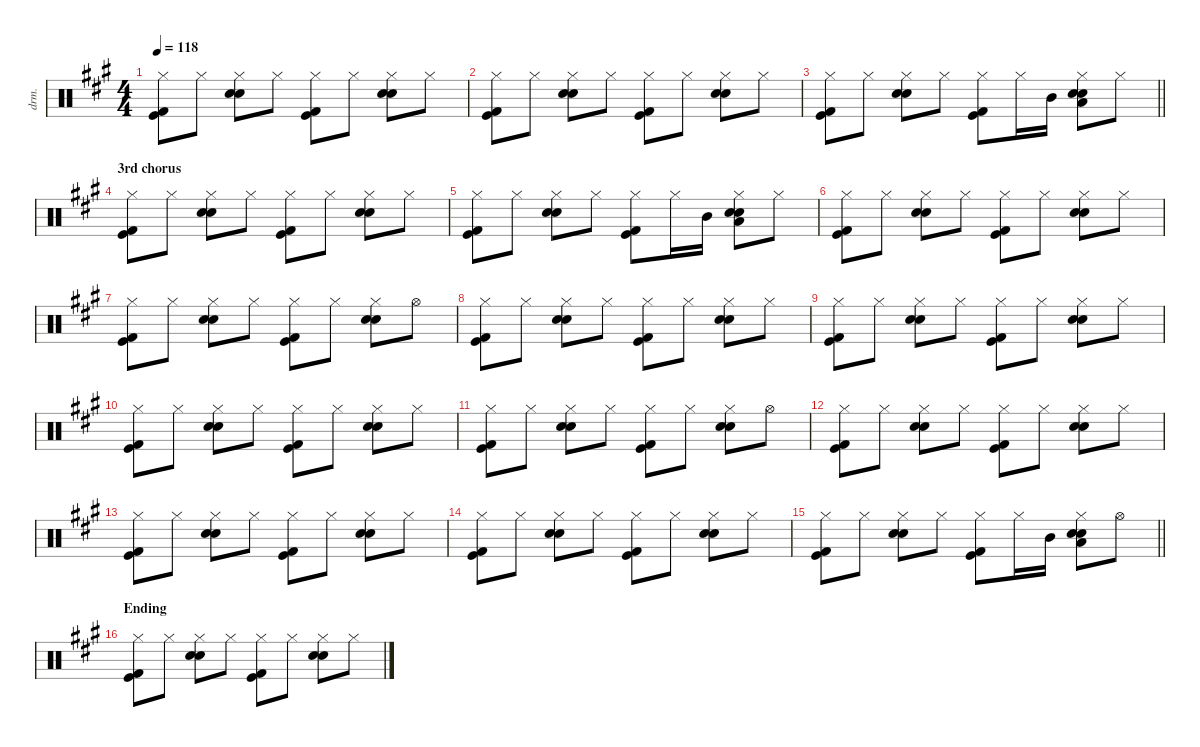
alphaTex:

\defaultSystemsLayout 4
\hideDynamics
\bracketExtendMode nobrackets
\otherSystemsTrackNameOrientation horizontal
\track ("drums" "drm.") {instrument percussion}
\staff {score}
\articulation defaults
\ts (4 4)
\tempo 118
\clef neutral
\ks f#minor
("Hi-Hat (closed)"{acc forcenatural} "Kick (hit)"{acc forcenatural} "Kick (hit) 2"{acc forcenatural}).8{dy f} "Hi-Hat (closed)"{acc forcenatural}.8{dy mf} ("Hi-Hat (closed)"{acc forcenatural} "Hand Clap (hit)"{acc forcenatural} "Snare (hit) 2"{acc forcenatural}).8{dy f} "Hi-Hat (closed)"{acc forcenatural}.8{dy mf} ("Hi-Hat (closed)"{acc forcenatural} "Kick (hit)"{acc forcenatural} "Kick (hit) 2"{acc forcenatural}).8{dy f} "Hi-Hat (closed)"{acc forcenatural}.8{dy mf} ("Hi-Hat (closed)"{acc forcenatural} "Hand Clap (hit)"{acc forcenatural} "Snare (hit) 2"{acc forcenatural}).8{dy f} "Hi-Hat (closed)"{acc forcenatural}.8{dy mf} |
("Hi-Hat (closed)"{acc forcenatural} "Kick (hit)"{acc forcenatural} "Kick (hit) 2"{acc forcenatural}).8{dy f} "Hi-Hat (closed)"{acc forcenatural}.8{dy mf} ("Hi-Hat (closed)"{acc forcenatural} "Hand Clap (hit)"{acc forcenatural} "Snare (hit) 2"{acc forcenatural}).8{dy f} "Hi-Hat (closed)"{acc forcenatural}.8{dy mf} ("Hi-Hat (closed)"{acc forcenatural} "Kick (hit)"{acc forcenatural} "Kick (hit) 2"{acc forcenatural}).8{dy f} "Hi-Hat (closed)"{acc forcenatural}.8{dy mf} ("Hi-Hat (closed)"{acc forcenatural} "Hand Clap (hit)"{acc forcenatural} "Snare (hit) 2"{acc forcenatural}).8{dy f} "Hi-Hat (closed)"{acc forcenatural}.8{dy mf} |
\barLineRight lightlight
("Hi-Hat (closed)"{acc forcenatural} "Kick (hit)"{acc forcenatural} "Kick (hit) 2"{acc forcenatural}).8{dy f} "Hi-Hat (closed)"{acc forcenatural}.8{dy mf} ("Hi-Hat (closed)"{acc forcenatural} "Hand Clap (hit)"{acc forcenatural} "Snare (hit) 2"{acc forcenatural}).8{dy f} "Hi-Hat (closed)"{acc forcenatural}.8{dy mf} ("Hi-Hat (closed)"{acc forcenatural} "Kick (hit)"{acc forcenatural} "Kick (hit) 2"{acc forcenatural}).8{dy f} "Hi-Hat (closed)"{acc forcenatural}.16{dy mf} "Mid Tom (hit)"{acc forcenatural}.16 ("Hi-Hat (closed)"{acc forcenatural} "Hand Clap (hit)"{acc forcenatural} "Snare (hit) 2"{acc forcenatural} "Low Tom (hit)"{acc forcenatural}).8{dy f} "Hi-Hat (closed)"{acc forcenatural}.8{dy mf} |
\section ("" "3rd chorus")
("Hi-Hat (closed)"{acc forcenatural} "Kick (hit)"{acc forcenatural} "Kick (hit) 2"{acc forcenatural}).8{dy f} "Hi-Hat (closed)"{acc forcenatural}.8{dy mf} ("Hi-Hat (closed)"{acc forcenatural} "Hand Clap (hit)"{acc forcenatural} "Snare (hit) 2"{acc forcenatural}).8{dy f} "Hi-Hat (closed)"{acc forcenatural}.8{dy mf} ("Hi-Hat (closed)"{acc forcenatural} "Kick (hit)"{acc forcenatural} "Kick (hit) 2"{acc forcenatural}).8{dy f} "Hi-Hat (closed)"{acc forcenatural}.8{dy mf} ("Hi-Hat (closed)"{acc forcenatural} "Hand Clap (hit)"{acc forcenatural} "Snare (hit) 2"{acc forcenatural}).8{dy f} "Hi-Hat (closed)"{acc forcenatural}.8{dy mf} |
("Hi-Hat (closed)"{acc forcenatural} "Kick (hit)"{acc forcenatural} "Kick (hit) 2"{acc forcenatural}).8{dy f} "Hi-Hat (closed)"{acc forcenatural}.8{dy mf} ("Hi-Hat (closed)"{acc forcenatural} "Hand Clap (hit)"{acc forcenatural} "Snare (hit) 2"{acc forcenatural}).8{dy f} "Hi-Hat (closed)"{acc forcenatural}.8{dy mf} ("Hi-Hat (closed)"{acc forcenatural} "Kick (hit)"{acc forcenatural} "Kick (hit) 2"{acc forcenatural}).8{dy f} "Hi-Hat (closed)"{acc forcenatural}.16{dy mf} "Mid Tom (hit)"{acc forcenatural}.16 ("Hi-Hat (closed)"{acc forcenatural} "Hand Clap (hit)"{acc forcenatural} "Snare (hit) 2"{acc forcenatural} "Low Tom (hit)"{acc forcenatural}).8{dy f} "Hi-Hat (closed)"{acc forcenatural}.8{dy mf} |
("Hi-Hat (closed)"{acc forcenatural} "Kick (hit)"{acc forcenatural} "Kick (hit) 2"{acc forcenatural}).8{dy f} "Hi-Hat (closed)"{acc forcenatural}.8{dy mf} ("Hi-Hat (closed)"{acc forcenatural} "Hand Clap (hit)"{acc forcenatural} "Snare (hit) 2"{acc forcenatural}).8{dy f} "Hi-Hat (closed)"{acc forcenatural}.8{dy mf} ("Hi-Hat (closed)"{acc forcenatural} "Kick (hit)"{acc forcenatural} "Kick (hit) 2"{acc forcenatural}).8{dy f} "Hi-Hat (closed)"{acc forcenatural}.8{dy mf} ("Hi-Hat (closed)"{acc forcenatural} "Hand Clap (hit)"{acc forcenatural} "Snare (hit) 2"{acc forcenatural}).8{dy f} "Hi-Hat (closed)"{acc forcenatural}.8{dy mf} |
("Hi-Hat (closed)"{acc forcenatural} "Kick (hit)"{acc forcenatural} "Kick (hit) 2"{acc forcenatural}).8{dy f} "Hi-Hat (closed)"{acc forcenatural}.8{dy mf} ("Hi-Hat (closed)"{acc forcenatural} "Hand Clap (hit)"{acc forcenatural} "Snare (hit) 2"{acc forcenatural}).8{dy f} "Hi-Hat (closed)"{acc forcenatural}.8{dy mf} ("Hi-Hat (closed)"{acc forcenatural} "Kick (hit)"{acc forcenatural} "Kick (hit) 2"{acc forcenatural}).8{dy f} "Hi-Hat (closed)"{acc forcenatural}.8{dy mf} ("Hi-Hat (closed)"{acc forcenatural} "Hand Clap (hit)"{acc forcenatural} "Snare (hit) 2"{acc forcenatural}).8{dy f} "Hi-Hat (open)"{acc forcenatural}.8 |
("Hi-Hat (closed)"{acc forcenatural} "Kick (hit)"{acc forcenatural} "Kick (hit) 2"{acc forcenatural}).8 "Hi-Hat (closed)"{acc forcenatural}.8{dy mf} ("Hi-Hat (closed)"{acc forcenatural} "Hand Clap (hit)"{acc forcenatural} "Snare (hit) 2"{acc forcenatural}).8{dy f} "Hi-Hat (closed)"{acc forcenatural}.8{dy mf} ("Hi-Hat (closed)"{acc forcenatural} "Kick (hit)"{acc forcenatural} "Kick (hit) 2"{acc forcenatural}).8{dy f} "Hi-Hat (closed)"{acc forcenatural}.8{dy mf} ("Hi-Hat (closed)"{acc forcenatural} "Hand Clap (hit)"{acc forcenatural} "Snare (hit) 2"{acc forcenatural}).8{dy f} "Hi-Hat (closed)"{acc forcenatural}.8{dy mf} |
("Hi-Hat (closed)"{acc forcenatural} "Kick (hit)"{acc forcenatural} "Kick (hit) 2"{acc forcenatural}).8{dy f} "Hi-Hat (closed)"{acc forcenatural}.8{dy mf} ("Hi-Hat (closed)"{acc forcenatural} "Hand Clap (hit)"{acc forcenatural} "Snare (hit) 2"{acc forcenatural}).8{dy f} "Hi-Hat (closed)"{acc forcenatural}.8{dy mf} ("Hi-Hat (closed)"{acc forcenatural} "Kick (hit)"{acc forcenatural} "Kick (hit) 2"{acc forcenatural}).8{dy f} "Hi-Hat (closed)"{acc forcenatural}.8{dy mf} ("Hi-Hat (closed)"{acc forcenatural} "Hand Clap (hit)"{acc forcenatural} "Snare (hit) 2"{acc forcenatural}).8{dy f} "Hi-Hat (closed)"{acc forcenatural}.8{dy mf} |
("Hi-Hat (closed)"{acc forcenatural} "Kick (hit)"{acc forcenatural} "Kick (hit) 2"{acc forcenatural}).8{dy f} "Hi-Hat (closed)"{acc forcenatural}.8{dy mf} ("Hi-Hat (closed)"{acc forcenatural} "Hand Clap (hit)"{acc forcenatural} "Snare (hit) 2"{acc forcenatural}).8{dy f} "Hi-Hat (closed)"{acc forcenatural}.8{dy mf} ("Hi-Hat (closed)"{acc forcenatural} "Kick (hit)"{acc forcenatural} "Kick (hit) 2"{acc forcenatural}).8{dy f} "Hi-Hat (closed)"{acc forcenatural}.8{dy mf} ("Hi-Hat (closed)"{acc forcenatural} "Hand Clap (hit)"{acc forcenatural} "Snare (hit) 2"{acc forcenatural}).8{dy f} "Hi-Hat (closed)"{acc forcenatural}.8{dy mf} |
("Hi-Hat (closed)"{acc forcenatural} "Kick (hit)"{acc forcenatural} "Kick (hit) 2"{acc forcenatural}).8{dy f} "Hi-Hat (closed)"{acc forcenatural}.8{dy mf} ("Hi-Hat (closed)"{acc forcenatural} "Hand Clap (hit)"{acc forcenatural} "Snare (hit) 2"{acc forcenatural}).8{dy f} "Hi-Hat (closed)"{acc forcenatural}.8{dy mf} ("Hi-Hat (closed)"{acc forcenatural} "Kick (hit)"{acc forcenatural} "Kick (hit) 2"{acc forcenatural}).8{dy f} "Hi-Hat (closed)"{acc forcenatural}.8{dy mf} ("Hi-Hat (closed)"{acc forcenatural} "Hand Clap (hit)"{acc forcenatural} "Snare (hit) 2"{acc forcenatural}).8{dy f} "Hi-Hat (open)"{acc forcenatural}.8 |
("Hi-Hat (closed)"{acc forcenatural} "Kick (hit)"{acc forcenatural} "Kick (hit) 2"{acc forcenatural}).8 "Hi-Hat (closed)"{acc forcenatural}.8{dy mf} ("Hi-Hat (closed)"{acc forcenatural} "Hand Clap (hit)"{acc forcenatural} "Snare (hit) 2"{acc forcenatural}).8{dy f} "Hi-Hat (closed)"{acc forcenatural}.8{dy mf} ("Hi-Hat (closed)"{acc forcenatural} "Kick (hit)"{acc forcenatural} "Kick (hit) 2"{acc forcenatural}).8{dy f} "Hi-Hat (closed)"{acc forcenatural}.8{dy mf} ("Hi-Hat (closed)"{acc forcenatural} "Hand Clap (hit)"{acc forcenatural} "Snare (hit) 2"{acc forcenatural}).8{dy f} "Hi-Hat (closed)"{acc forcenatural}.8{dy mf} |
("Hi-Hat (closed)"{acc forcenatural} "Kick (hit)"{acc forcenatural} "Kick (hit) 2"{acc forcenatural}).8{dy f} "Hi-Hat (closed)"{acc forcenatural}.8{dy mf} ("Hi-Hat (closed)"{acc forcenatural} "Hand Clap (hit)"{acc forcenatural} "Snare (hit) 2"{acc forcenatural}).8{dy f} "Hi-Hat (closed)"{acc forcenatural}.8{dy mf} ("Hi-Hat (closed)"{acc forcenatural} "Kick (hit)"{acc forcenatural} "Kick (hit) 2"{acc forcenatural}).8{dy f} "Hi-Hat (closed)"{acc forcenatural}.8{dy mf} ("Hi-Hat (closed)"{acc forcenatural} "Hand Clap (hit)"{acc forcenatural} "Snare (hit) 2"{acc forcenatural}).8{dy f} "Hi-Hat (closed)"{acc forcenatural}.8{dy mf} |
("Hi-Hat (closed)"{acc forcenatural} "Kick (hit)"{acc forcenatural} "Kick (hit) 2"{acc forcenatural}).8{dy f} "Hi-Hat (closed)"{acc forcenatural}.8{dy mf} ("Hi-Hat (closed)"{acc forcenatural} "Hand Clap (hit)"{acc forcenatural} "Snare (hit) 2"{acc forcenatural}).8{dy f} "Hi-Hat (closed)"{acc forcenatural}.8{dy mf} ("Hi-Hat (closed)"{acc forcenatural} "Kick (hit)"{acc forcenatural} "Kick (hit) 2"{acc forcenatural}).8{dy f} "Hi-Hat (closed)"{acc forcenatural}.8{dy mf} ("Hi-Hat (closed)"{acc forcenatural} "Hand Clap (hit)"{acc forcenatural} "Snare (hit) 2"{acc forcenatural}).8{dy f} "Hi-Hat (closed)"{acc forcenatural}.8{dy mf} |
\barLineRight lightlight
("Hi-Hat (closed)"{acc forcenatural} "Kick (hit)"{acc forcenatural} "Kick (hit) 2"{acc forcenatural}).8{dy f} "Hi-Hat (closed)"{acc forcenatural}.8{dy mf} ("Hi-Hat (closed)"{acc forcenatural} "Hand Clap (hit)"{acc forcenatural} "Snare (hit) 2"{acc forcenatural}).8{dy f} "Hi-Hat (closed)"{acc forcenatural}.8{dy mf} ("Hi-Hat (closed)"{acc forcenatural} "Kick (hit)"{acc forcenatural} "Kick (hit) 2"{acc forcenatural}).8{dy f} "Hi-Hat (closed)"{acc forcenatural}.16{dy mf} "Mid Tom (hit)"{acc forcenatural}.16 ("Hi-Hat (closed)"{acc forcenatural} "Hand Clap (hit)"{acc forcenatural} "Snare (hit) 2"{acc forcenatural} "Low Tom (hit)"{acc forcenatural}).8{dy f} "Hi-Hat (open)"{acc forcenatural}.8{dy mf} |
\section ("" "Ending")
("Hi-Hat (closed)"{acc forcenatural} "Kick (hit)"{acc forcenatural} "Kick (hit) 2"{acc forcenatural}).8{dy f} "Hi-Hat (closed)"{acc forcenatural}.8{dy mf} ("Hi-Hat (closed)"{acc forcenatural} "Hand Clap (hit)"{acc forcenatural} "Snare (hit) 2"{acc forcenatural}).8{dy f} "Hi-Hat (closed)"{acc forcenatural}.8{dy mf} ("Hi-Hat (closed)"{acc forcenatural} "Kick (hit)"{acc forcenatural} "Kick (hit) 2"{acc forcenatural}).8{dy f} "Hi-Hat (closed)"{acc forcenatural}.8{dy mf} ("Hi-Hat (closed)"{acc forcenatural} "Hand Clap (hit)"{acc forcenatural} "Snare (hit) 2"{acc forcenatural}).8{dy f} "Hi-Hat (closed)"{acc forcenatural}.8{dy mf}
